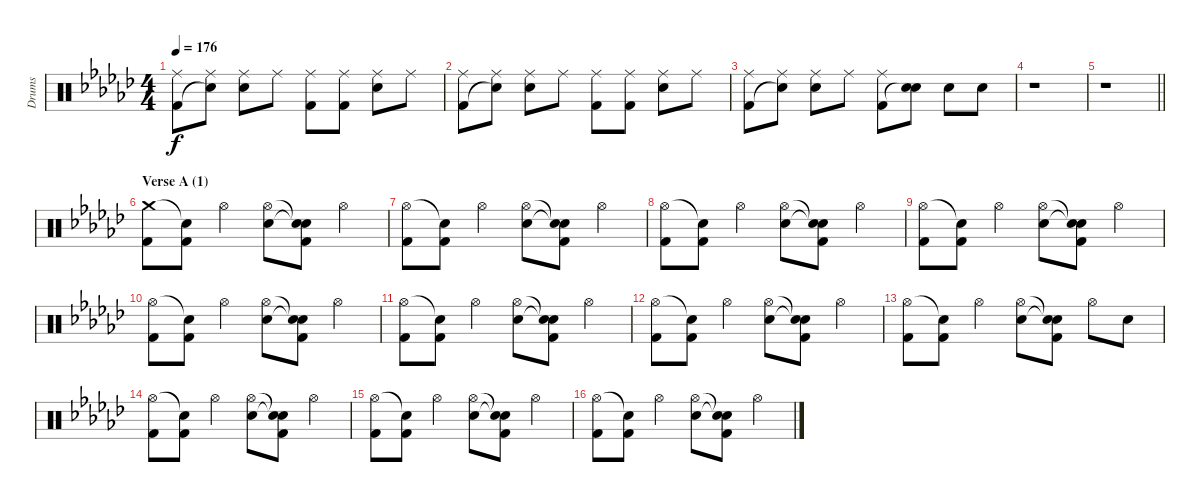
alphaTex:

\track ("Drums" "Drums") {instrument percussion}
\staff {score}
\articulation defaults
\ts (4 4)
\tempo 176
\clef neutral
\ks ebminor
("Ride (middle)" "Kick (hit) 2").8{dy f} ("Ride (middle)" "Snare (hit)"{t}).8 ("Ride (middle)" "Electric Snare (hit)").8 "Ride (middle)".8 ("Ride (middle)" "Kick (hit) 2").8 ("Ride (middle)" "Kick (hit) 2").8 ("Ride (middle)" "Electric Snare (hit)").8 "Ride (middle)".8 |
("Ride (middle)" "Kick (hit) 2").8 ("Ride (middle)" "Snare (hit)"{t}).8 ("Ride (middle)" "Electric Snare (hit)").8 "Ride (middle)".8 ("Ride (middle)" "Kick (hit) 2").8 ("Ride (middle)" "Kick (hit) 2").8 ("Ride (middle)" "Electric Snare (hit)").8 "Ride (middle)".8 |
("Ride (middle)" "Kick (hit) 2").8 ("Ride (middle)" "Snare (hit)"{t}).8 ("Ride (middle)" "Electric Snare (hit)").8 "Ride (middle)".8 ("Ride (middle)" "Kick (hit) 2").8 ("Electric Snare (hit)" "Snare (hit)"{t}).8 "Electric Snare (hit)".8 "Electric Snare (hit)".8 |
r.1 |
\barLineRight lightlight
r.1 |
\section ("" "Verse A (1)")
("Crash medium (hit)" "Kick (hit) 2").8 ("Snare (hit)"{t} "Kick (hit) 2").8 "Hi-Hat (open)".4 ("Hi-Hat (open)" "Electric Snare (hit)").8 ("Snare (hit)"{t} "Snare (hit)"{t} "Kick (hit) 2").8 "Hi-Hat (open)".4 |
("Hi-Hat (open)" "Kick (hit) 2").8 ("Snare (hit)"{t} "Kick (hit) 2").8 "Hi-Hat (open)".4 ("Hi-Hat (open)" "Electric Snare (hit)").8 ("Snare (hit)"{t} "Snare (hit)"{t} "Kick (hit) 2").8 "Hi-Hat (open)".4 |
("Hi-Hat (open)" "Kick (hit) 2").8 ("Snare (hit)"{t} "Kick (hit) 2").8 "Hi-Hat (open)".4 ("Hi-Hat (open)" "Electric Snare (hit)").8 ("Snare (hit)"{t} "Snare (hit)"{t} "Kick (hit) 2").8 "Hi-Hat (open)".4 |
("Hi-Hat (open)" "Kick (hit) 2").8 ("Snare (hit)"{t} "Kick (hit) 2").8 "Hi-Hat (open)".4 ("Hi-Hat (open)" "Electric Snare (hit)").8 ("Snare (hit)"{t} "Snare (hit)"{t} "Kick (hit) 2").8 "Hi-Hat (open)".4 |
("Hi-Hat (open)" "Kick (hit) 2").8 ("Snare (hit)"{t} "Kick (hit) 2").8 "Hi-Hat (open)".4 ("Hi-Hat (open)" "Electric Snare (hit)").8 ("Snare (hit)"{t} "Snare (hit)"{t} "Kick (hit) 2").8 "Hi-Hat (open)".4 |
("Hi-Hat (open)" "Kick (hit) 2").8 ("Snare (hit)"{t} "Kick (hit) 2").8 "Hi-Hat (open)".4 ("Hi-Hat (open)" "Electric Snare (hit)").8 ("Snare (hit)"{t} "Snare (hit)"{t} "Kick (hit) 2").8 "Hi-Hat (open)".4 |
("Hi-Hat (open)" "Kick (hit) 2").8 ("Snare (hit)"{t} "Kick (hit) 2").8 "Hi-Hat (open)".4 ("Hi-Hat (open)" "Electric Snare (hit)").8 ("Snare (hit)"{t} "Snare (hit)"{t} "Kick (hit) 2").8 "Hi-Hat (open)".4 |
("Hi-Hat (open)" "Kick (hit) 2").8 ("Snare (hit)"{t} "Kick (hit) 2").8 "Hi-Hat (open)".4 ("Hi-Hat (open)" "Electric Snare (hit)").8 ("Snare (hit)"{t} "Snare (hit)"{t} "Kick (hit) 2").8 "Hi-Hat (open)".8 "Electric Snare (hit)".8 |
("Hi-Hat (open)" "Kick (hit) 2").8 ("Snare (hit)"{t} "Kick (hit) 2").8 "Hi-Hat (open)".4 ("Hi-Hat (open)" "Electric Snare (hit)").8 ("Snare (hit)"{t} "Snare (hit)"{t} "Kick (hit) 2").8 "Hi-Hat (open)".4 |
("Hi-Hat (open)" "Kick (hit) 2").8 ("Snare (hit)"{t} "Kick (hit) 2").8 "Hi-Hat (open)".4 ("Hi-Hat (open)" "Electric Snare (hit)").8 ("Snare (hit)"{t} "Snare (hit)"{t} "Kick (hit) 2").8 "Hi-Hat (open)".4 |
("Hi-Hat (open)" "Kick (hit) 2").8 ("Snare (hit)"{t} "Kick (hit) 2").8 "Hi-Hat (open)".4 ("Hi-Hat (open)" "Electric Snare (hit)").8 ("Snare (hit)"{t} "Snare (hit)"{t} "Kick (hit) 2").8 "Hi-Hat (open)".4
